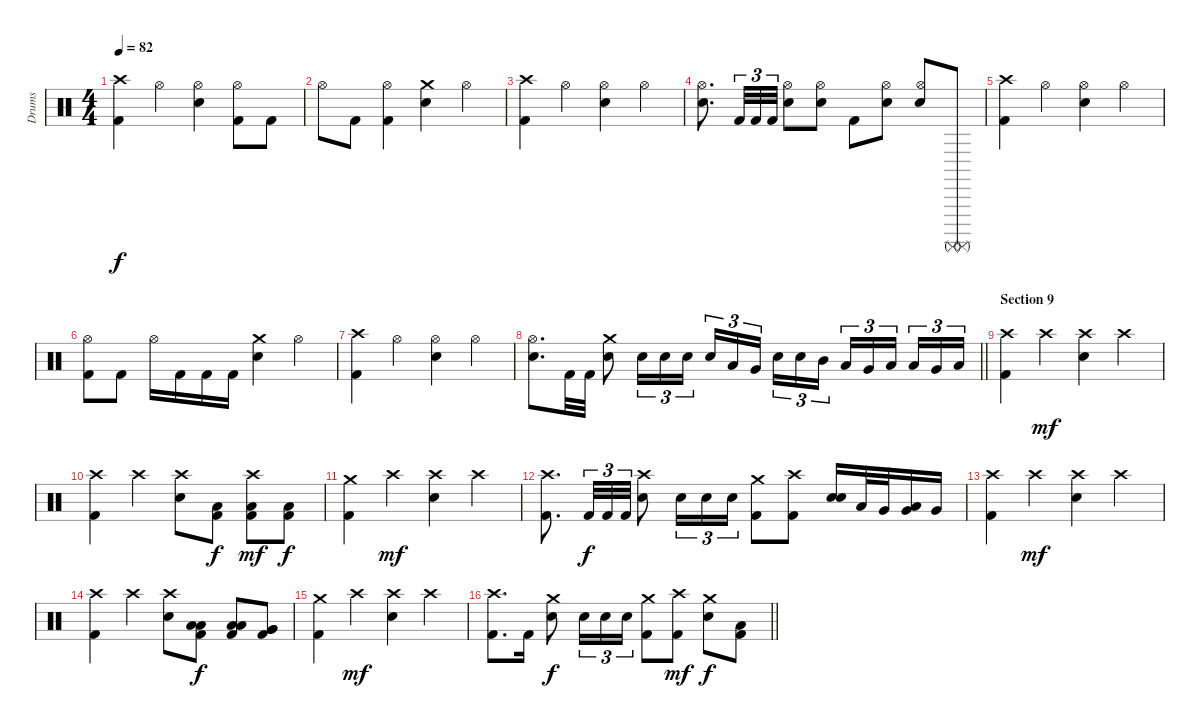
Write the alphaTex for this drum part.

\track ("Drums" "Drums") {instrument percussion}
\staff {score}
\articulation defaults
\ts (4 4)
\tempo 82
\clef neutral
\ks c
("Crash high (hit)" "Kick (hit) 2").4{dy f} "Hi-Hat (open)".4 ("Hi-Hat (open)" "Electric Snare (hit)").4 ("Hi-Hat (open)" "Kick (hit) 2").8 "Kick (hit) 2".8 |
"Hi-Hat (open)".8 "Kick (hit) 2".8 ("Hi-Hat (open)" "Kick (hit) 2").4 ("Crash medium (hit)" "Electric Snare (hit)").4 "Hi-Hat (open)".4 |
("Crash high (hit)" "Kick (hit) 2").4 "Hi-Hat (open)".4 ("Hi-Hat (open)" "Electric Snare (hit)").4 "Hi-Hat (open)".4 |
("Hi-Hat (open)" "Electric Snare (hit)").8{d} "Kick (hit) 2".32{tu (3 2)} "Kick (hit) 2".32{tu (3 2)} "Kick (hit) 2".32{tu (3 2)} ("Hi-Hat (open)" "Electric Snare (hit)").8 ("Hi-Hat (open)" "Electric Snare (hit)").8 "Kick (hit) 2".8 ("Hi-Hat (open)" "Electric Snare (hit)").8 ("Hi-Hat (open)" "Electric Snare (hit)").8 ("Surdo (mute)" "Surdo (mute)").8{bu 60} |
("Crash high (hit)" "Kick (hit) 2").4 "Hi-Hat (open)".4 ("Hi-Hat (open)" "Electric Snare (hit)").4 "Hi-Hat (open)".4 |
("Hi-Hat (open)" "Kick (hit) 2").8 "Kick (hit) 2".8 "Hi-Hat (open)".16 "Kick (hit) 2".16 "Kick (hit) 2".16 "Kick (hit) 2".16 ("Crash medium (hit)" "Electric Snare (hit)").4 "Hi-Hat (open)".4 |
("Crash high (hit)" "Kick (hit) 2").4 "Hi-Hat (open)".4 ("Hi-Hat (open)" "Electric Snare (hit)").4 "Hi-Hat (open)".4 |
\barLineRight lightlight
("Hi-Hat (open)" "Electric Snare (hit)").8{d} "Kick (hit) 2".32 "Kick (hit) 2".32 ("Crash medium (hit)" "Electric Snare (hit)").8 "Electric Snare (hit)".16{tu (3 2)} "Electric Snare (hit)".16{tu (3 2)} "Electric Snare (hit)".16{tu (3 2)} "Electric Snare (hit)".16{tu (3 2)} "Low Tom (hit)".16{tu (3 2)} "Very Low Tom (hit)".16{tu (3 2) beam splitsecondary} "Electric Snare (hit)".16{tu (3 2)} "Electric Snare (hit)".16{tu (3 2)} "Mid Tom (hit)".16{tu (3 2)} "Low Tom (hit)".16{tu (3 2)} "Very Low Tom (hit)".16{tu (3 2)} "Low Floor Tom (hit)".16{tu (3 2) beam splitsecondary} "Low Tom (hit)".16{tu (3 2)} "Very Low Tom (hit)".16{tu (3 2)} "Low Floor Tom (hit)".16{tu (3 2)} |
\section ("" "Section 9")
("Crash high (hit)" "Kick (hit) 2").4 "Crash high (hit)".4{dy mf} ("Crash high (hit)" "Electric Snare (hit)").4 "Crash high (hit)".4 |
("Crash high (hit)" "Kick (hit) 2").4 "Crash high (hit)".4 ("Crash high (hit)" "Electric Snare (hit)").8 ("Low Tom (hit)" "Kick (hit) 2").8{dy f} ("Crash high (hit)" "Low Tom (hit)" "Kick (hit) 2").8{dy mf} ("Low Tom (hit)" "Kick (hit) 2").8{dy f} |
("Crash medium (hit)" "Kick (hit) 2").4 "Crash high (hit)".4{dy mf} ("Crash high (hit)" "Electric Snare (hit)").4 "Crash high (hit)".4 |
("Crash high (hit)" "Kick (hit) 2").8{d} "Kick (hit) 2".32{tu (3 2) dy f} "Kick (hit) 2".32{tu (3 2)} "Kick (hit) 2".32{tu (3 2)} ("Crash high (hit)" "Electric Snare (hit)").8 "Electric Snare (hit)".16{tu (3 2)} "Electric Snare (hit)".16{tu (3 2)} "Electric Snare (hit)".16{tu (3 2)} ("Crash medium (hit)" "Kick (hit) 2").8 ("Crash high (hit)" "Kick (hit) 2").8 ("Electric Snare (hit)" "Electric Snare (hit)").16{bu 60} "Low Tom (hit)".32 "Very Low Tom (hit)".32 ("Low Floor Tom (hit)" "Very Low Tom (hit)").16{bu 60} "Very Low Tom (hit)".16 |
("Crash high (hit)" "Kick (hit) 2").4 "Crash high (hit)".4{dy mf} ("Crash high (hit)" "Electric Snare (hit)").4 "Crash high (hit)".4 |
("Crash high (hit)" "Kick (hit) 2").4 "Crash high (hit)".4 ("Crash high (hit)" "Electric Snare (hit)").8 ("Low Floor Tom (hit)" "Low Floor Tom (hit)" "Kick (hit) 2").8{dy f} ("Low Tom (hit)" "Low Tom (hit)" "Kick (hit) 2").8 ("Very Low Tom (hit)" "Very Low Tom (hit)" "Kick (hit) 2").8 |
("Crash medium (hit)" "Kick (hit) 2").4 "Crash high (hit)".4{dy mf} ("Crash high (hit)" "Electric Snare (hit)").4 "Crash high (hit)".4 |
\barLineRight lightlight
("Crash high (hit)" "Kick (hit) 2").8{d} "Kick (hit) 2".16 ("Crash medium (hit)" "Electric Snare (hit)").8{dy f} "Electric Snare (hit)".16{tu (3 2)} "Electric Snare (hit)".16{tu (3 2)} "Electric Snare (hit)".16{tu (3 2)} ("Crash medium (hit)" "Kick (hit) 2").8 ("Crash high (hit)" "Kick (hit) 2").8{dy mf} ("Crash medium (hit)" "Electric Snare (hit)").8{dy f} ("Low Floor Tom (hit)" "Kick (hit) 2").8
